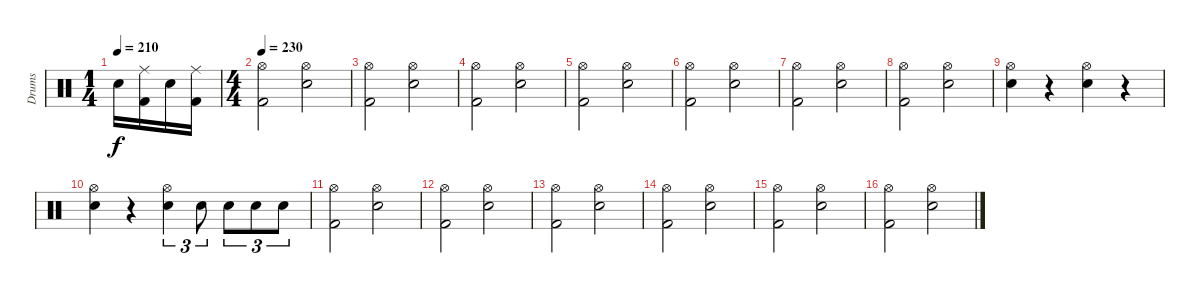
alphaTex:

\track ("Drums" "Drums") {instrument percussion}
\staff {score}
\articulation defaults
\ts (1 4)
\tempo 210
\clef neutral
\ks c "Electric Snare (hit)".16{dy f}
("Ride (middle)" "Kick (hit) 2").16 "Electric Snare (hit)".16 ("Ride (middle)" "Kick (hit) 2").16 |
\ts (4 4)
\tempo 230
("Hi-Hat (open)" "Kick (hit) 2").2 ("Hi-Hat (open)" "Electric Snare (hit)").2 |
("Hi-Hat (open)" "Kick (hit) 2").2 ("Hi-Hat (open)" "Electric Snare (hit)").2 |
("Hi-Hat (open)" "Kick (hit) 2").2 ("Hi-Hat (open)" "Electric Snare (hit)").2 |
("Hi-Hat (open)" "Kick (hit) 2").2 ("Hi-Hat (open)" "Electric Snare (hit)").2 |
("Hi-Hat (open)" "Kick (hit) 2").2 ("Hi-Hat (open)" "Electric Snare (hit)").2 |
("Hi-Hat (open)" "Kick (hit) 2").2 ("Hi-Hat (open)" "Electric Snare (hit)").2 |
("Hi-Hat (open)" "Kick (hit) 2").2 ("Hi-Hat (open)" "Electric Snare (hit)").2 |
("Hi-Hat (open)" "Electric Snare (hit)").4 r.4 ("Hi-Hat (open)" "Electric Snare (hit)").4 r.4 |
("Hi-Hat (open)" "Electric Snare (hit)").4 r.4 ("Hi-Hat (open)" "Electric Snare (hit)").4{tu (3 2)} "Electric Snare (hit)".8{tu (3 2)} "Electric Snare (hit)".8{tu (3 2)} "Electric Snare (hit)".8{tu (3 2)} "Electric Snare (hit)".8{tu (3 2)} |
("Hi-Hat (open)" "Kick (hit) 2").2 ("Hi-Hat (open)" "Electric Snare (hit)").2 |
("Hi-Hat (open)" "Kick (hit) 2").2 ("Hi-Hat (open)" "Electric Snare (hit)").2 |
("Hi-Hat (open)" "Kick (hit) 2").2 ("Hi-Hat (open)" "Electric Snare (hit)").2 |
("Hi-Hat (open)" "Kick (hit) 2").2 ("Hi-Hat (open)" "Electric Snare (hit)").2 |
("Hi-Hat (open)" "Kick (hit) 2").2 ("Hi-Hat (open)" "Electric Snare (hit)").2 |
("Hi-Hat (open)" "Kick (hit) 2").2 ("Hi-Hat (open)" "Electric Snare (hit)").2
